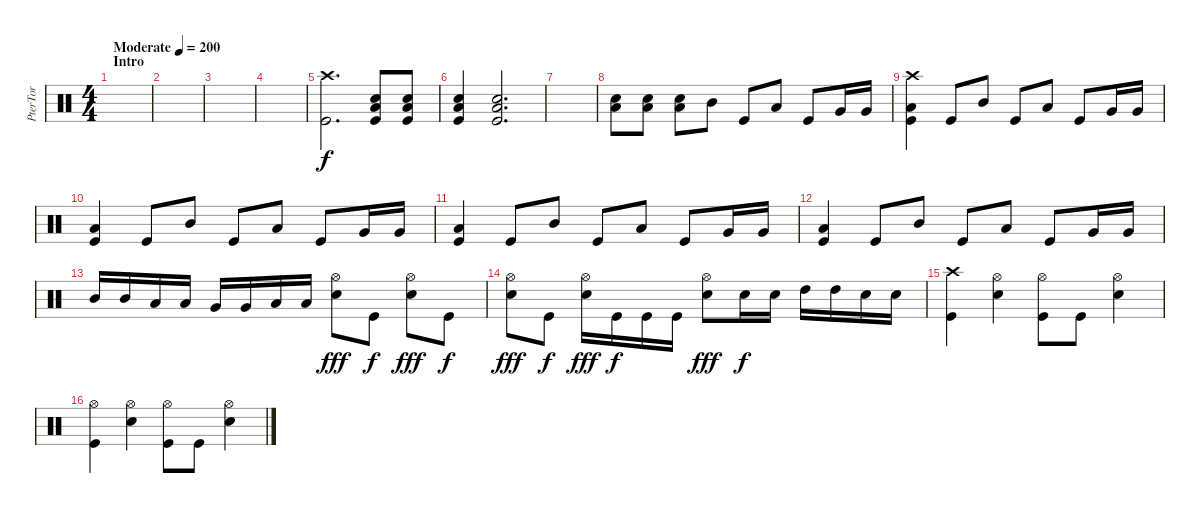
\track ("PterTor" "PterTor") {instrument percussion}
\staff {score}
\articulation defaults
\ts (4 4)
\section ("" "Intro")
\tempo (200 "Moderate")
\clef neutral
\ks c
|
|
|
|
("Crash high (hit)" "Kick (hit)").2{d} ("Low Floor Tom (hit)" "Snare (hit) 2" "Kick (hit)").8 ("Low Floor Tom (hit)" "Snare (hit) 2" "Kick (hit)").8 |
("Low Floor Tom (hit)" "Snare (hit) 2" "Kick (hit)").4 ("Low Floor Tom (hit)" "Snare (hit) 2" "Kick (hit)").2{d} |
|
("Snare (hit) 2" "Low Floor Tom (hit)").8 ("Snare (hit) 2" "Low Floor Tom (hit)").8 ("Snare (hit) 2" "Low Floor Tom (hit)").8 "Mid Tom (hit)".8 "Kick (hit)".8 "Low Tom (hit)".8 "Kick (hit)".8 "Very Low Tom (hit)".16 "Very Low Tom (hit)".16 |
("Crash high (hit)" "Low Floor Tom (hit)" "Kick (hit)").4 "Kick (hit)".8 "Mid Tom (hit)".8 "Kick (hit)".8 "Low Tom (hit)".8 "Kick (hit)".8 "Very Low Tom (hit)".16 "Very Low Tom (hit)".16 |
("Low Floor Tom (hit)" "Kick (hit)").4 "Kick (hit)".8 "Mid Tom (hit)".8 "Kick (hit)".8 "Low Tom (hit)".8 "Kick (hit)".8 "Very Low Tom (hit)".16 "Very Low Tom (hit)".16 |
("Low Floor Tom (hit)" "Kick (hit)").4 "Kick (hit)".8 "Mid Tom (hit)".8 "Kick (hit)".8 "Low Tom (hit)".8 "Kick (hit)".8 "Very Low Tom (hit)".16 "Very Low Tom (hit)".16 |
("Low Floor Tom (hit)" "Kick (hit)").4 "Kick (hit)".8 "Mid Tom (hit)".8 "Kick (hit)".8 "Low Tom (hit)".8 "Kick (hit)".8 "Very Low Tom (hit)".16 "Very Low Tom (hit)".16 |
"Mid Tom (hit)".16 "Mid Tom (hit)".16 "Low Tom (hit)".16 "Low Tom (hit)".16 "Very Low Tom (hit)".16 "Very Low Tom (hit)".16 "Low Floor Tom (hit)".16 "Low Floor Tom (hit)".16 ("Hi-Hat (open)" "Snare (hit) 2").8{dy fff} "Kick (hit)".8{dy f} ("Hi-Hat (open)" "Snare (hit) 2").8{dy fff} "Kick (hit)".8{dy f} |
("Hi-Hat (open)" "Snare (hit) 2").8{dy fff} "Kick (hit)".8{dy f} ("Hi-Hat (open)" "Snare (hit) 2").16{dy fff} "Kick (hit)".16{dy f} "Kick (hit)".16 "Kick (hit)".16 ("Hi-Hat (open)" "Snare (hit) 2").8{dy fff} "Snare (hit) 2".16{dy f} "Snare (hit) 2".16 "High Tom (hit)".16 "High Tom (hit)".16 "Snare (hit) 2".16 "Snare (hit) 2".16 |
("Crash high (hit)" "Kick (hit)").4 ("Hi-Hat (open)" "Snare (hit) 2").4 ("Hi-Hat (open)" "Kick (hit)").8 "Kick (hit)".8 ("Hi-Hat (open)" "Snare (hit) 2").4 |
("Hi-Hat (open)" "Kick (hit)").4 ("Hi-Hat (open)" "Snare (hit) 2").4 ("Hi-Hat (open)" "Kick (hit)").8 "Kick (hit)".8 ("Hi-Hat (open)" "Snare (hit) 2").4
